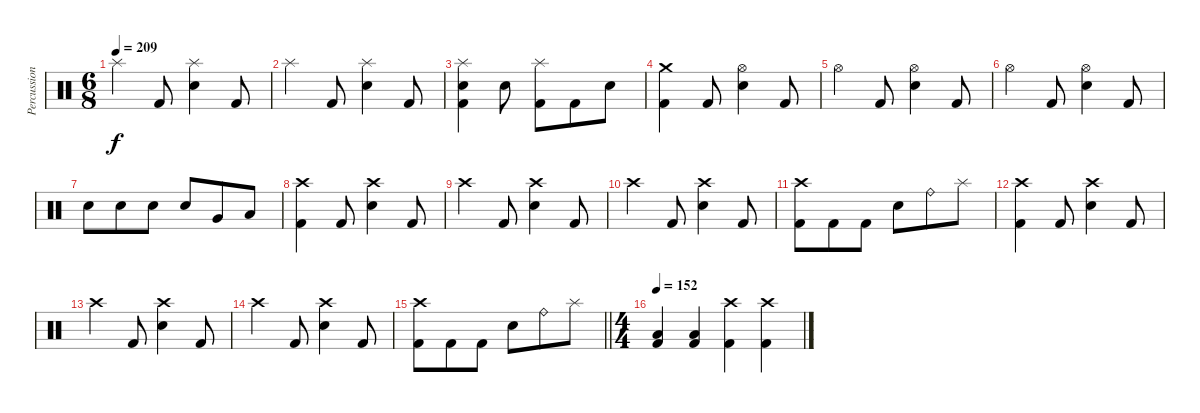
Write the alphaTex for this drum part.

\track ("Percussion" "Percussion") {instrument percussion}
\staff {score}
\articulation defaults
\ts (6 8)
\tempo 209
\clef neutral
\ks c "Splash (hit)".4{dy f} "Kick (hit) 2".8
("Splash (hit)" "Electric Snare (hit)").4 "Kick (hit) 2".8 |
"Splash (hit)".4 "Kick (hit) 2".8 ("Splash (hit)" "Electric Snare (hit)").4 "Kick (hit) 2".8 |
("Splash (hit)" "Electric Snare (hit)" "Kick (hit) 2").4 "Electric Snare (hit)".8 ("Splash (hit)" "Kick (hit) 2").8 "Kick (hit) 2".8 "Electric Snare (hit)".8 |
("Crash medium (hit)" "Kick (hit) 2").4 "Kick (hit) 2".8 ("Hi-Hat (open)" "Electric Snare (hit)").4 "Kick (hit) 2".8 |
"Hi-Hat (open)".4 "Kick (hit) 2".8 ("Hi-Hat (open)" "Electric Snare (hit)").4 "Kick (hit) 2".8 |
"Hi-Hat (open)".4 "Kick (hit) 2".8 ("Hi-Hat (open)" "Electric Snare (hit)").4 "Kick (hit) 2".8 |
"Electric Snare (hit)".8 "Electric Snare (hit)".8 "Electric Snare (hit)".8 "Electric Snare (hit)".8 "Very Low Tom (hit)".8 "Low Floor Tom (hit)".8 |
("Crash high (hit)" "Kick (hit) 2").4 "Kick (hit) 2".8 ("Crash high (hit)" "Electric Snare (hit)").4 "Kick (hit) 2".8 |
"Crash high (hit)".4 "Kick (hit) 2".8 ("Crash high (hit)" "Electric Snare (hit)").4 "Kick (hit) 2".8 |
"Crash high (hit)".4 "Kick (hit) 2".8 ("Crash high (hit)" "Electric Snare (hit)").4 "Kick (hit) 2".8 |
("Crash high (hit)" "Kick (hit) 2").8 "Kick (hit) 2".8 "Kick (hit) 2".8 "Electric Snare (hit)".8 "Ride (bell)".8 "Splash (hit)".8 |
("Crash high (hit)" "Kick (hit) 2").4 "Kick (hit) 2".8 ("Crash high (hit)" "Electric Snare (hit)").4 "Kick (hit) 2".8 |
"Crash high (hit)".4 "Kick (hit) 2".8 ("Crash high (hit)" "Electric Snare (hit)").4 "Kick (hit) 2".8 |
"Crash high (hit)".4 "Kick (hit) 2".8 ("Crash high (hit)" "Electric Snare (hit)").4 "Kick (hit) 2".8 |
\barLineRight lightlight
("Crash high (hit)" "Kick (hit) 2").8 "Kick (hit) 2".8 "Kick (hit) 2".8 "Electric Snare (hit)".8 "Ride (bell)".8 "Splash (hit)".8 |
\ts (4 4)
\section ("" "")
\tempo 152
("Low Floor Tom (hit)" "Kick (hit) 2").4 ("Low Floor Tom (hit)" "Kick (hit) 2").4 ("Crash high (hit)" "Kick (hit) 2").4 ("Crash high (hit)" "Kick (hit) 2").4
